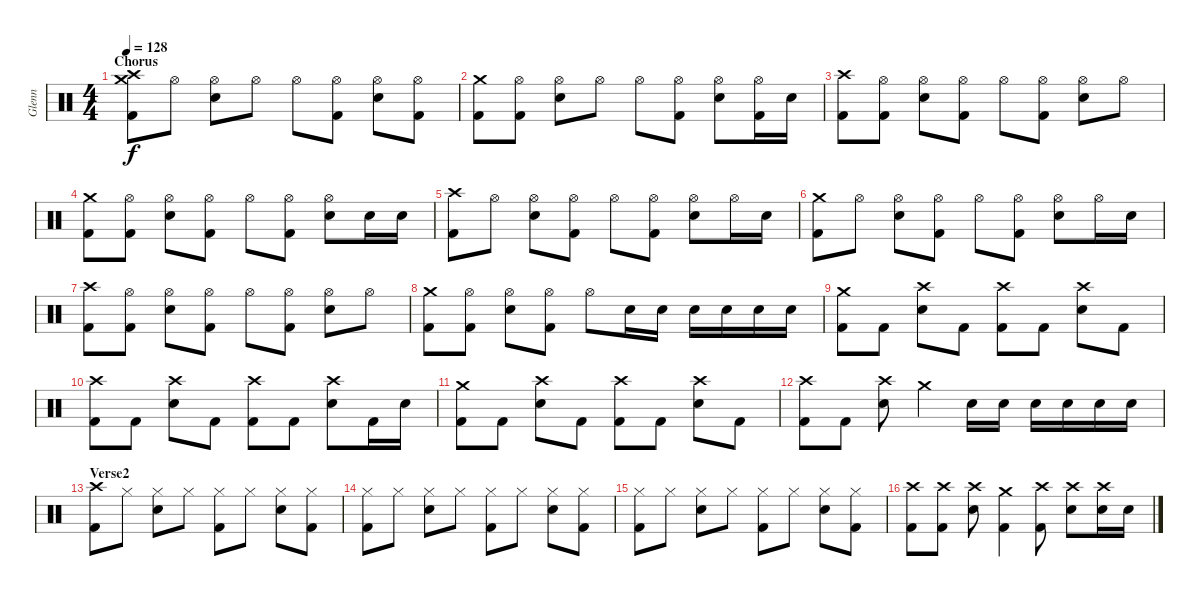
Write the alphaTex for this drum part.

\track ("Glenn" "Glenn") {instrument percussion}
\staff {score}
\articulation defaults
\ts (4 4)
\section ("" "Chorus")
\tempo 128
\clef neutral
\ks c
("Crash medium (hit)" "Crash high (hit)" "Kick (hit) 2").8{dy f} "Hi-Hat (open)".8 ("Hi-Hat (open)" "Electric Snare (hit)").8 "Hi-Hat (open)".8 "Hi-Hat (open)".8 ("Hi-Hat (open)" "Kick (hit) 2").8 ("Hi-Hat (open)" "Electric Snare (hit)").8 ("Hi-Hat (open)" "Kick (hit) 2").8 |
("Crash medium (hit)" "Kick (hit) 2").8 ("Hi-Hat (open)" "Kick (hit) 2").8 ("Hi-Hat (open)" "Electric Snare (hit)").8 "Hi-Hat (open)".8 "Hi-Hat (open)".8 ("Hi-Hat (open)" "Kick (hit) 2").8 ("Hi-Hat (open)" "Electric Snare (hit)").8 ("Hi-Hat (open)" "Kick (hit) 2").16 "Electric Snare (hit)".16 |
("Crash high (hit)" "Kick (hit) 2").8 ("Hi-Hat (open)" "Kick (hit) 2").8 ("Hi-Hat (open)" "Electric Snare (hit)").8 ("Hi-Hat (open)" "Kick (hit) 2").8 "Hi-Hat (open)".8 ("Hi-Hat (open)" "Kick (hit) 2").8 ("Hi-Hat (open)" "Electric Snare (hit)").8 "Hi-Hat (open)".8 |
("Crash medium (hit)" "Kick (hit) 2").8 ("Hi-Hat (open)" "Kick (hit) 2").8 ("Hi-Hat (open)" "Electric Snare (hit)").8 ("Hi-Hat (open)" "Kick (hit) 2").8 "Hi-Hat (open)".8 ("Hi-Hat (open)" "Kick (hit) 2").8 ("Hi-Hat (open)" "Electric Snare (hit)").8 "Electric Snare (hit)".16 "Electric Snare (hit)".16 |
("Crash high (hit)" "Kick (hit) 2").8 "Hi-Hat (open)".8 ("Hi-Hat (open)" "Electric Snare (hit)").8 ("Hi-Hat (open)" "Kick (hit) 2").8 "Hi-Hat (open)".8 ("Hi-Hat (open)" "Kick (hit) 2").8 ("Hi-Hat (open)" "Electric Snare (hit)").8 "Hi-Hat (open)".16 "Electric Snare (hit)".16 |
("Crash medium (hit)" "Kick (hit) 2").8 "Hi-Hat (open)".8 ("Hi-Hat (open)" "Electric Snare (hit)").8 ("Hi-Hat (open)" "Kick (hit) 2").8 "Hi-Hat (open)".8 ("Hi-Hat (open)" "Kick (hit) 2").8 ("Hi-Hat (open)" "Electric Snare (hit)").8 "Hi-Hat (open)".16 "Electric Snare (hit)".16 |
("Crash high (hit)" "Kick (hit) 2").8 ("Hi-Hat (open)" "Kick (hit) 2").8 ("Hi-Hat (open)" "Electric Snare (hit)").8 ("Hi-Hat (open)" "Kick (hit) 2").8 "Hi-Hat (open)".8 ("Hi-Hat (open)" "Kick (hit) 2").8 ("Hi-Hat (open)" "Electric Snare (hit)").8 "Hi-Hat (open)".8 |
("Crash medium (hit)" "Kick (hit) 2").8 ("Hi-Hat (open)" "Kick (hit) 2").8 ("Hi-Hat (open)" "Electric Snare (hit)").8 ("Hi-Hat (open)" "Kick (hit) 2").8 "Hi-Hat (open)".8 "Electric Snare (hit)".16 "Electric Snare (hit)".16 "Electric Snare (hit)".16 "Electric Snare (hit)".16 "Electric Snare (hit)".16 "Electric Snare (hit)".16 |
("Crash medium (hit)" "Kick (hit) 2").8 "Kick (hit) 2".8 ("Crash high (hit)" "Electric Snare (hit)").8 "Kick (hit) 2".8 ("Crash high (hit)" "Kick (hit) 2").8 "Kick (hit) 2".8 ("Crash high (hit)" "Electric Snare (hit)").8 "Kick (hit) 2".8 |
("Crash high (hit)" "Kick (hit) 2").8 "Kick (hit) 2".8 ("Crash high (hit)" "Electric Snare (hit)").8 "Kick (hit) 2".8 ("Crash high (hit)" "Kick (hit) 2").8 "Kick (hit) 2".8 ("Crash high (hit)" "Electric Snare (hit)").8 "Kick (hit) 2".16 "Electric Snare (hit)".16 |
("Crash medium (hit)" "Kick (hit) 2").8 "Kick (hit) 2".8 ("Crash high (hit)" "Electric Snare (hit)").8 "Kick (hit) 2".8 ("Crash high (hit)" "Kick (hit) 2").8 "Kick (hit) 2".8 ("Crash high (hit)" "Electric Snare (hit)").8 "Kick (hit) 2".8 |
("Crash high (hit)" "Kick (hit) 2").8 "Kick (hit) 2".8 ("Crash high (hit)" "Electric Snare (hit)").8 "Crash medium (hit)".4 "Electric Snare (hit)".16 "Electric Snare (hit)".16 "Electric Snare (hit)".16 "Electric Snare (hit)".16 "Electric Snare (hit)".16 "Electric Snare (hit)".16 |
\section ("" "Verse2")
("Crash high (hit)" "Kick (hit) 2").8 "Hi-Hat (closed)".8 ("Hi-Hat (closed)" "Electric Snare (hit)").8 "Hi-Hat (closed)".8 ("Hi-Hat (closed)" "Kick (hit) 2").8 "Hi-Hat (closed)".8 ("Hi-Hat (closed)" "Electric Snare (hit)").8 ("Hi-Hat (closed)" "Kick (hit) 2").8 |
("Hi-Hat (closed)" "Kick (hit) 2").8 "Hi-Hat (closed)".8 ("Hi-Hat (closed)" "Electric Snare (hit)").8 "Hi-Hat (closed)".8 ("Hi-Hat (closed)" "Kick (hit) 2").8 "Hi-Hat (closed)".8 ("Hi-Hat (closed)" "Electric Snare (hit)").8 ("Hi-Hat (closed)" "Kick (hit) 2").8 |
("Hi-Hat (closed)" "Kick (hit) 2").8 "Hi-Hat (closed)".8 ("Hi-Hat (closed)" "Electric Snare (hit)").8 "Hi-Hat (closed)".8 ("Hi-Hat (closed)" "Kick (hit) 2").8 "Hi-Hat (closed)".8 ("Hi-Hat (closed)" "Electric Snare (hit)").8 ("Hi-Hat (closed)" "Kick (hit) 2").8 |
("Crash high (hit)" "Kick (hit) 2").8 ("Crash high (hit)" "Kick (hit) 2").8 ("Crash high (hit)" "Electric Snare (hit)").8 ("Crash medium (hit)" "Kick (hit) 2").4 ("Crash high (hit)" "Kick (hit) 2").8 ("Crash high (hit)" "Electric Snare (hit)").8 ("Crash high (hit)" "Electric Snare (hit)").16 "Electric Snare (hit)".16
